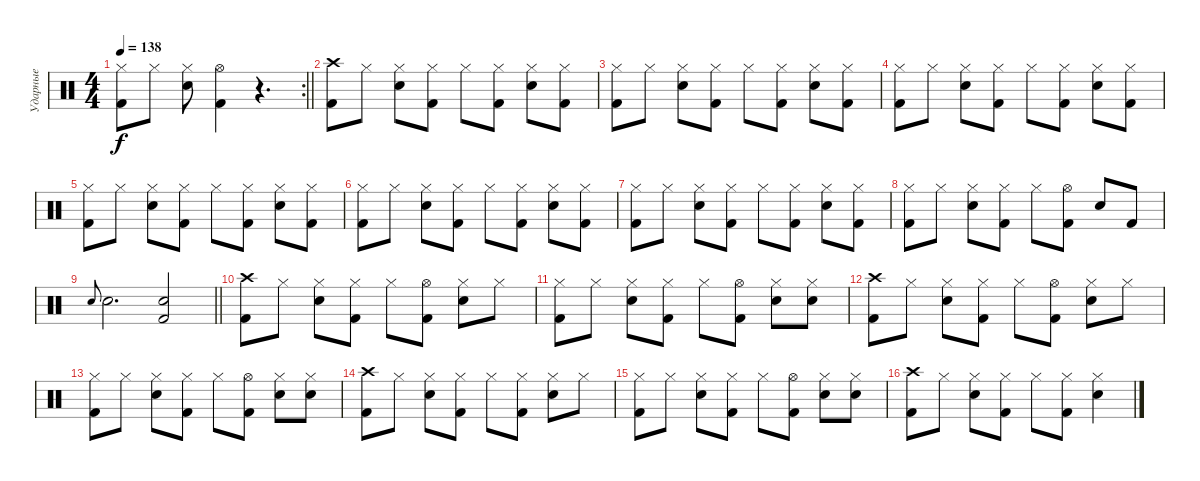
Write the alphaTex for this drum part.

\track ("Ударные" "Ударные") {instrument percussion}
\staff {score}
\articulation defaults
\rc 2
\ts (4 4)
\tempo 138
\clef neutral
\barLineRight lightlight
\ks c
("Hi-Hat (closed)" "Kick (hit) 2").8{dy f} "Hi-Hat (closed)".8 ("Hi-Hat (closed)" "Snare (hit) 2").8 ("Hi-Hat (open)" "Kick (hit) 2").4 r.4{d} |
("Crash high (hit)" "Kick (hit) 2").8 "Hi-Hat (closed)".8 ("Hi-Hat (closed)" "Snare (hit) 2").8 ("Hi-Hat (closed)" "Kick (hit) 2").8 "Hi-Hat (closed)".8 ("Hi-Hat (closed)" "Kick (hit) 2").8 ("Hi-Hat (closed)" "Snare (hit) 2").8 ("Hi-Hat (closed)" "Kick (hit) 2").8 |
("Hi-Hat (closed)" "Kick (hit) 2").8 "Hi-Hat (closed)".8 ("Hi-Hat (closed)" "Snare (hit) 2").8 ("Hi-Hat (closed)" "Kick (hit) 2").8 "Hi-Hat (closed)".8 ("Hi-Hat (closed)" "Kick (hit) 2").8 ("Hi-Hat (closed)" "Snare (hit) 2").8 ("Hi-Hat (closed)" "Kick (hit) 2").8 |
("Hi-Hat (closed)" "Kick (hit) 2").8 "Hi-Hat (closed)".8 ("Hi-Hat (closed)" "Snare (hit) 2").8 ("Hi-Hat (closed)" "Kick (hit) 2").8 "Hi-Hat (closed)".8 ("Hi-Hat (closed)" "Kick (hit) 2").8 ("Hi-Hat (closed)" "Snare (hit) 2").8 ("Hi-Hat (closed)" "Kick (hit) 2").8 |
("Hi-Hat (closed)" "Kick (hit) 2").8 "Hi-Hat (closed)".8 ("Hi-Hat (closed)" "Snare (hit) 2").8 ("Hi-Hat (closed)" "Kick (hit) 2").8 "Hi-Hat (closed)".8 ("Hi-Hat (closed)" "Kick (hit) 2").8 ("Hi-Hat (closed)" "Snare (hit) 2").8 ("Hi-Hat (closed)" "Kick (hit) 2").8 |
("Hi-Hat (closed)" "Kick (hit) 2").8 "Hi-Hat (closed)".8 ("Hi-Hat (closed)" "Snare (hit) 2").8 ("Hi-Hat (closed)" "Kick (hit) 2").8 "Hi-Hat (closed)".8 ("Hi-Hat (closed)" "Kick (hit) 2").8 ("Hi-Hat (closed)" "Snare (hit) 2").8 ("Hi-Hat (closed)" "Kick (hit) 2").8 |
("Hi-Hat (closed)" "Kick (hit) 2").8 "Hi-Hat (closed)".8 ("Hi-Hat (closed)" "Snare (hit) 2").8 ("Hi-Hat (closed)" "Kick (hit) 2").8 "Hi-Hat (closed)".8 ("Hi-Hat (closed)" "Kick (hit) 2").8 ("Hi-Hat (closed)" "Snare (hit) 2").8 ("Hi-Hat (closed)" "Kick (hit) 2").8 |
("Hi-Hat (closed)" "Kick (hit) 2").8 "Hi-Hat (closed)".8 ("Hi-Hat (closed)" "Snare (hit) 2").8 ("Hi-Hat (closed)" "Kick (hit) 2").8 "Hi-Hat (closed)".8 ("Hi-Hat (open)" "Kick (hit) 2").8 "Snare (hit) 2".8 "Kick (hit) 2".8 |
\barLineRight lightlight "Snare (hit) 2".8{gr onbeat} "Snare (hit) 2".2{d}
("Snare (hit) 2" "Kick (hit) 2").2 |
("Crash high (hit)" "Kick (hit) 2").8 "Hi-Hat (closed)".8 ("Hi-Hat (closed)" "Snare (hit) 2").8 ("Hi-Hat (closed)" "Kick (hit) 2").8 "Hi-Hat (closed)".8 ("Hi-Hat (open)" "Kick (hit) 2").8 ("Hi-Hat (closed)" "Snare (hit) 2").8 "Hi-Hat (closed)".8 |
("Hi-Hat (closed)" "Kick (hit) 2").8 "Hi-Hat (closed)".8 ("Hi-Hat (closed)" "Snare (hit) 2").8 ("Hi-Hat (closed)" "Kick (hit) 2").8 "Hi-Hat (closed)".8 ("Hi-Hat (open)" "Kick (hit) 2").8 ("Hi-Hat (closed)" "Snare (hit) 2").8 ("Hi-Hat (closed)" "Snare (hit) 2").8 |
("Crash high (hit)" "Kick (hit) 2").8 "Hi-Hat (closed)".8 ("Hi-Hat (closed)" "Snare (hit) 2").8 ("Hi-Hat (closed)" "Kick (hit) 2").8 "Hi-Hat (closed)".8 ("Hi-Hat (open)" "Kick (hit) 2").8 ("Hi-Hat (closed)" "Snare (hit) 2").8 "Hi-Hat (closed)".8 |
("Hi-Hat (closed)" "Kick (hit) 2").8 "Hi-Hat (closed)".8 ("Hi-Hat (closed)" "Snare (hit) 2").8 ("Hi-Hat (closed)" "Kick (hit) 2").8 "Hi-Hat (closed)".8 ("Hi-Hat (open)" "Kick (hit) 2").8 ("Hi-Hat (closed)" "Snare (hit) 2").8 ("Hi-Hat (closed)" "Snare (hit) 2").8 |
("Crash high (hit)" "Kick (hit) 2").8 "Hi-Hat (closed)".8 ("Hi-Hat (closed)" "Snare (hit) 2").8 ("Hi-Hat (closed)" "Kick (hit) 2").8 "Hi-Hat (closed)".8 ("Hi-Hat (closed)" "Kick (hit) 2").8 ("Hi-Hat (closed)" "Snare (hit) 2").8 "Hi-Hat (closed)".8 |
("Hi-Hat (closed)" "Kick (hit) 2").8 "Hi-Hat (closed)".8 ("Hi-Hat (closed)" "Snare (hit) 2").8 ("Hi-Hat (closed)" "Kick (hit) 2").8 "Hi-Hat (closed)".8 ("Hi-Hat (open)" "Kick (hit) 2").8 ("Hi-Hat (closed)" "Snare (hit) 2").8 ("Hi-Hat (closed)" "Snare (hit) 2").8 |
("Crash high (hit)" "Kick (hit) 2").8 "Hi-Hat (closed)".8 ("Hi-Hat (closed)" "Snare (hit) 2").8 ("Hi-Hat (closed)" "Kick (hit) 2").8 "Hi-Hat (closed)".8 ("Hi-Hat (closed)" "Kick (hit) 2").8 ("Hi-Hat (closed)" "Snare (hit) 2").4
